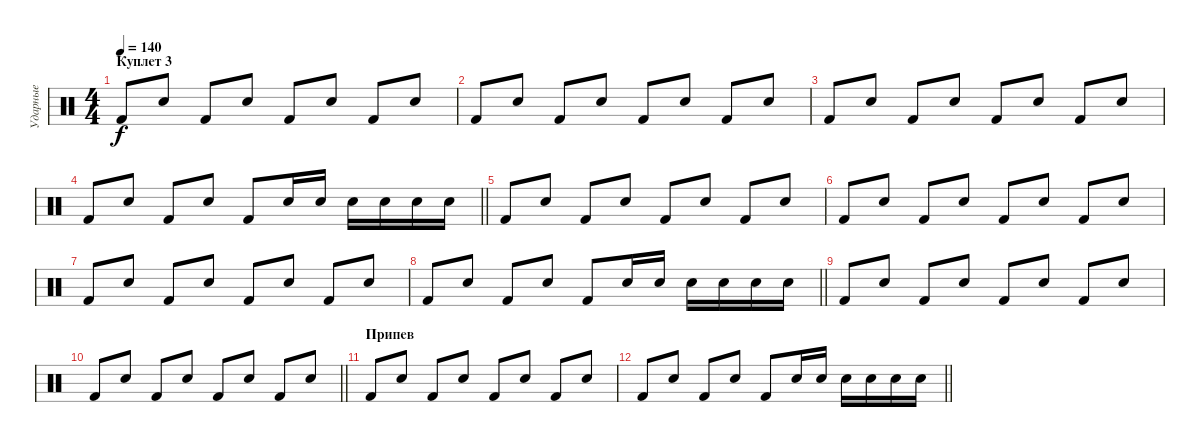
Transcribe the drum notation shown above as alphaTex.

\track ("Ударные" "Ударные") {instrument percussion}
\staff {score}
\articulation defaults
\ts (4 4)
\section ("" "Куплет 3")
\tempo 140
\clef neutral
\ks c "Kick (hit) 2".8{dy f} "Electric Snare (hit)".8 "Kick (hit) 2".8 "Electric Snare (hit)".8 "Kick (hit) 2".8 "Electric Snare (hit)".8 "Kick (hit) 2".8 "Electric Snare (hit)".8
|
"Kick (hit) 2".8 "Electric Snare (hit)".8 "Kick (hit) 2".8 "Electric Snare (hit)".8 "Kick (hit) 2".8 "Electric Snare (hit)".8 "Kick (hit) 2".8 "Electric Snare (hit)".8 |
"Kick (hit) 2".8 "Electric Snare (hit)".8 "Kick (hit) 2".8 "Electric Snare (hit)".8 "Kick (hit) 2".8 "Electric Snare (hit)".8 "Kick (hit) 2".8 "Electric Snare (hit)".8 |
\barLineRight lightlight "Kick (hit) 2".8 "Electric Snare (hit)".8 "Kick (hit) 2".8 "Electric Snare (hit)".8 "Kick (hit) 2".8 "Electric Snare (hit)".16 "Electric Snare (hit)".16 "Electric Snare (hit)".16 "Electric Snare (hit)".16 "Electric Snare (hit)".16 "Electric Snare (hit)".16
|
"Kick (hit) 2".8 "Electric Snare (hit)".8 "Kick (hit) 2".8 "Electric Snare (hit)".8 "Kick (hit) 2".8 "Electric Snare (hit)".8 "Kick (hit) 2".8 "Electric Snare (hit)".8 |
"Kick (hit) 2".8 "Electric Snare (hit)".8 "Kick (hit) 2".8 "Electric Snare (hit)".8 "Kick (hit) 2".8 "Electric Snare (hit)".8 "Kick (hit) 2".8 "Electric Snare (hit)".8 |
"Kick (hit) 2".8 "Electric Snare (hit)".8 "Kick (hit) 2".8 "Electric Snare (hit)".8 "Kick (hit) 2".8 "Electric Snare (hit)".8 "Kick (hit) 2".8 "Electric Snare (hit)".8 |
\barLineRight lightlight "Kick (hit) 2".8 "Electric Snare (hit)".8 "Kick (hit) 2".8 "Electric Snare (hit)".8 "Kick (hit) 2".8 "Electric Snare (hit)".16 "Electric Snare (hit)".16 "Electric Snare (hit)".16 "Electric Snare (hit)".16 "Electric Snare (hit)".16 "Electric Snare (hit)".16
|
"Kick (hit) 2".8 "Electric Snare (hit)".8 "Kick (hit) 2".8 "Electric Snare (hit)".8 "Kick (hit) 2".8 "Electric Snare (hit)".8 "Kick (hit) 2".8 "Electric Snare (hit)".8 |
\barLineRight lightlight "Kick (hit) 2".8 "Electric Snare (hit)".8 "Kick (hit) 2".8 "Electric Snare (hit)".8 "Kick (hit) 2".8 "Electric Snare (hit)".8 "Kick (hit) 2".8 "Electric Snare (hit)".8
|
\section ("" "Припев")
"Kick (hit) 2".8 "Electric Snare (hit)".8 "Kick (hit) 2".8 "Electric Snare (hit)".8 "Kick (hit) 2".8 "Electric Snare (hit)".8 "Kick (hit) 2".8 "Electric Snare (hit)".8 |
\barLineRight lightlight "Kick (hit) 2".8 "Electric Snare (hit)".8 "Kick (hit) 2".8 "Electric Snare (hit)".8 "Kick (hit) 2".8 "Electric Snare (hit)".16 "Electric Snare (hit)".16 "Electric Snare (hit)".16 "Electric Snare (hit)".16 "Electric Snare (hit)".16 "Electric Snare (hit)".16
